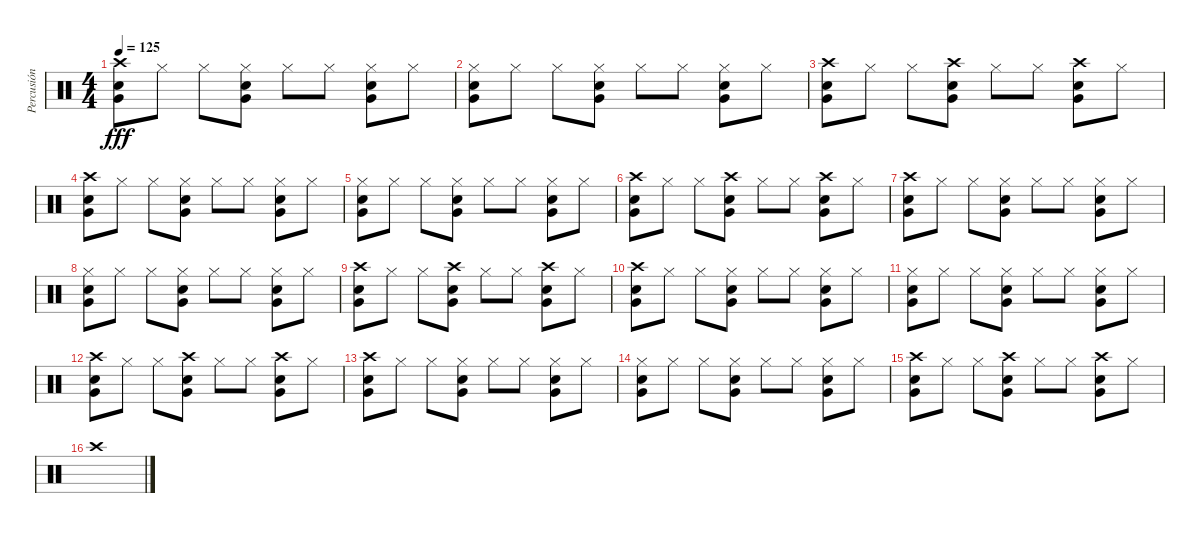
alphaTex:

\track ("Percusión" "Percusión") {instrument percussion}
\staff {score}
\articulation defaults
\ts (4 4)
\tempo 125
\clef neutral
\ks c
("Crash high (hit)" "Snare (hit) 2" "Very Low Tom (hit)").8{dy fff} "Hi-Hat (closed)".8 "Hi-Hat (closed)".8 ("Hi-Hat (closed)" "Snare (hit) 2" "Very Low Tom (hit)").8 "Hi-Hat (closed)".8 "Hi-Hat (closed)".8 ("Hi-Hat (closed)" "Snare (hit) 2" "Very Low Tom (hit)").8 "Hi-Hat (closed)".8 |
("Hi-Hat (closed)" "Snare (hit) 2" "Very Low Tom (hit)").8 "Hi-Hat (closed)".8 "Hi-Hat (closed)".8 ("Hi-Hat (closed)" "Snare (hit) 2" "Very Low Tom (hit)").8 "Hi-Hat (closed)".8 "Hi-Hat (closed)".8 ("Hi-Hat (closed)" "Snare (hit) 2" "Very Low Tom (hit)").8 "Hi-Hat (closed)".8 |
("Crash high (hit)" "Snare (hit) 2" "Very Low Tom (hit)").8 "Hi-Hat (closed)".8 "Hi-Hat (closed)".8 ("Crash high (hit)" "Snare (hit) 2" "Very Low Tom (hit)").8 "Hi-Hat (closed)".8 "Hi-Hat (closed)".8 ("Crash high (hit)" "Snare (hit) 2" "Very Low Tom (hit)").8 "Hi-Hat (closed)".8 |
("Crash high (hit)" "Snare (hit) 2" "Very Low Tom (hit)").8 "Hi-Hat (closed)".8 "Hi-Hat (closed)".8 ("Hi-Hat (closed)" "Snare (hit) 2" "Very Low Tom (hit)").8 "Hi-Hat (closed)".8 "Hi-Hat (closed)".8 ("Hi-Hat (closed)" "Snare (hit) 2" "Very Low Tom (hit)").8 "Hi-Hat (closed)".8 |
("Hi-Hat (closed)" "Snare (hit) 2" "Very Low Tom (hit)").8 "Hi-Hat (closed)".8 "Hi-Hat (closed)".8 ("Hi-Hat (closed)" "Snare (hit) 2" "Very Low Tom (hit)").8 "Hi-Hat (closed)".8 "Hi-Hat (closed)".8 ("Hi-Hat (closed)" "Snare (hit) 2" "Very Low Tom (hit)").8 "Hi-Hat (closed)".8 |
("Crash high (hit)" "Snare (hit) 2" "Very Low Tom (hit)").8 "Hi-Hat (closed)".8 "Hi-Hat (closed)".8 ("Crash high (hit)" "Snare (hit) 2" "Very Low Tom (hit)").8 "Hi-Hat (closed)".8 "Hi-Hat (closed)".8 ("Crash high (hit)" "Snare (hit) 2" "Very Low Tom (hit)").8 "Hi-Hat (closed)".8 |
("Crash high (hit)" "Snare (hit) 2" "Very Low Tom (hit)").8 "Hi-Hat (closed)".8 "Hi-Hat (closed)".8 ("Hi-Hat (closed)" "Snare (hit) 2" "Very Low Tom (hit)").8 "Hi-Hat (closed)".8 "Hi-Hat (closed)".8 ("Hi-Hat (closed)" "Snare (hit) 2" "Very Low Tom (hit)").8 "Hi-Hat (closed)".8 |
("Hi-Hat (closed)" "Snare (hit) 2" "Very Low Tom (hit)").8 "Hi-Hat (closed)".8 "Hi-Hat (closed)".8 ("Hi-Hat (closed)" "Snare (hit) 2" "Very Low Tom (hit)").8 "Hi-Hat (closed)".8 "Hi-Hat (closed)".8 ("Hi-Hat (closed)" "Snare (hit) 2" "Very Low Tom (hit)").8 "Hi-Hat (closed)".8 |
("Crash high (hit)" "Snare (hit) 2" "Very Low Tom (hit)").8 "Hi-Hat (closed)".8 "Hi-Hat (closed)".8 ("Crash high (hit)" "Snare (hit) 2" "Very Low Tom (hit)").8 "Hi-Hat (closed)".8 "Hi-Hat (closed)".8 ("Crash high (hit)" "Snare (hit) 2" "Very Low Tom (hit)").8 "Hi-Hat (closed)".8 |
("Crash high (hit)" "Snare (hit) 2" "Very Low Tom (hit)").8 "Hi-Hat (closed)".8 "Hi-Hat (closed)".8 ("Hi-Hat (closed)" "Snare (hit) 2" "Very Low Tom (hit)").8 "Hi-Hat (closed)".8 "Hi-Hat (closed)".8 ("Hi-Hat (closed)" "Snare (hit) 2" "Very Low Tom (hit)").8 "Hi-Hat (closed)".8 |
("Hi-Hat (closed)" "Snare (hit) 2" "Very Low Tom (hit)").8 "Hi-Hat (closed)".8 "Hi-Hat (closed)".8 ("Hi-Hat (closed)" "Snare (hit) 2" "Very Low Tom (hit)").8 "Hi-Hat (closed)".8 "Hi-Hat (closed)".8 ("Hi-Hat (closed)" "Snare (hit) 2" "Very Low Tom (hit)").8 "Hi-Hat (closed)".8 |
("Crash high (hit)" "Snare (hit) 2" "Very Low Tom (hit)").8 "Hi-Hat (closed)".8 "Hi-Hat (closed)".8 ("Crash high (hit)" "Snare (hit) 2" "Very Low Tom (hit)").8 "Hi-Hat (closed)".8 "Hi-Hat (closed)".8 ("Crash high (hit)" "Snare (hit) 2" "Very Low Tom (hit)").8 "Hi-Hat (closed)".8 |
("Crash high (hit)" "Snare (hit) 2" "Very Low Tom (hit)").8 "Hi-Hat (closed)".8 "Hi-Hat (closed)".8 ("Hi-Hat (closed)" "Snare (hit) 2" "Very Low Tom (hit)").8 "Hi-Hat (closed)".8 "Hi-Hat (closed)".8 ("Hi-Hat (closed)" "Snare (hit) 2" "Very Low Tom (hit)").8 "Hi-Hat (closed)".8 |
("Hi-Hat (closed)" "Snare (hit) 2" "Very Low Tom (hit)").8 "Hi-Hat (closed)".8 "Hi-Hat (closed)".8 ("Hi-Hat (closed)" "Snare (hit) 2" "Very Low Tom (hit)").8 "Hi-Hat (closed)".8 "Hi-Hat (closed)".8 ("Hi-Hat (closed)" "Snare (hit) 2" "Very Low Tom (hit)").8 "Hi-Hat (closed)".8 |
("Crash high (hit)" "Snare (hit) 2" "Very Low Tom (hit)").8 "Hi-Hat (closed)".8 "Hi-Hat (closed)".8 ("Crash high (hit)" "Snare (hit) 2" "Very Low Tom (hit)").8 "Hi-Hat (closed)".8 "Hi-Hat (closed)".8 ("Crash high (hit)" "Snare (hit) 2" "Very Low Tom (hit)").8 "Hi-Hat (closed)".8 |
"Crash high (hit)".1
